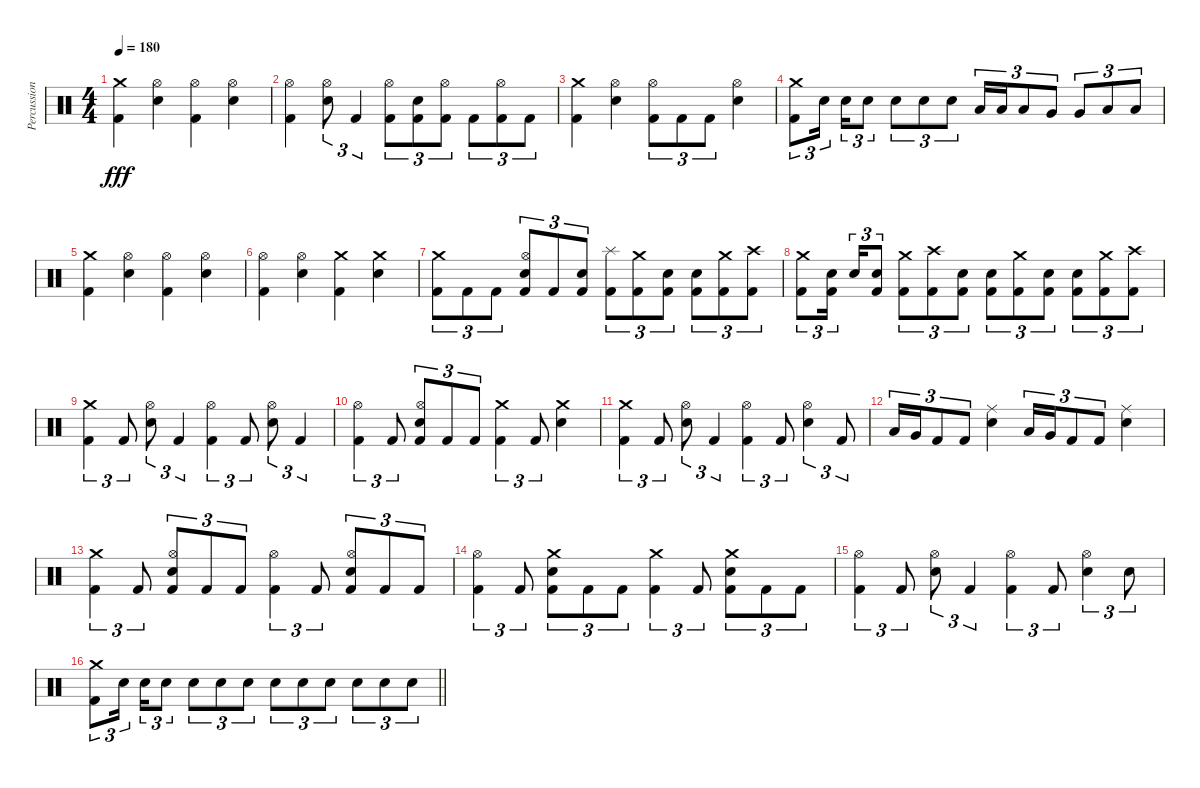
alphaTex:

\track ("Percussion" "Percussion") {instrument percussion}
\staff {score}
\articulation defaults
\ts (4 4)
\section ("" "")
\tempo 180
\clef neutral
\ks c
("Crash medium (hit)" "Kick (hit) 2").4{dy fff} ("Hi-Hat (open)" "Electric Snare (hit)").4 ("Hi-Hat (open)" "Kick (hit) 2").4 ("Hi-Hat (open)" "Electric Snare (hit)").4 |
("Hi-Hat (open)" "Kick (hit) 2").4 ("Hi-Hat (open)" "Electric Snare (hit)").8{tu (3 2)} "Kick (hit) 2".4{tu (3 2)} ("Hi-Hat (open)" "Kick (hit) 2").8{tu (3 2)} ("Electric Snare (hit)" "Kick (hit) 2").8{tu (3 2)} ("Hi-Hat (open)" "Kick (hit) 2").8{tu (3 2)} "Kick (hit) 2".8{tu (3 2)} ("Hi-Hat (open)" "Kick (hit) 2").8{tu (3 2)} "Kick (hit) 2".8{tu (3 2)} |
("Crash medium (hit)" "Kick (hit) 2").4 ("Hi-Hat (open)" "Electric Snare (hit)").4 ("Hi-Hat (open)" "Kick (hit) 2").8{tu (3 2)} "Kick (hit) 2".8{tu (3 2)} "Kick (hit) 2".8{tu (3 2)} ("Hi-Hat (open)" "Electric Snare (hit)").4 |
("Crash medium (hit)" "Kick (hit) 2").8{tu (3 2)} "Electric Snare (hit)".16{tu (3 2)} "Electric Snare (hit)".16{tu (3 2)} "Electric Snare (hit)".8{tu (3 2)} "Electric Snare (hit)".8{tu (3 2)} "Electric Snare (hit)".8{tu (3 2)} "Electric Snare (hit)".8{tu (3 2)} "Low Tom (hit)".16{tu (3 2)} "Low Tom (hit)".16{tu (3 2)} "Low Tom (hit)".8{tu (3 2)} "Very Low Tom (hit)".8{tu (3 2)} "Very Low Tom (hit)".8{tu (3 2)} "Low Floor Tom (hit)".8{tu (3 2)} "Low Floor Tom (hit)".8{tu (3 2)} |
("Crash medium (hit)" "Kick (hit) 2").4 ("Hi-Hat (open)" "Electric Snare (hit)").4 ("Hi-Hat (open)" "Kick (hit) 2").4 ("Hi-Hat (open)" "Electric Snare (hit)").4 |
("Hi-Hat (open)" "Kick (hit) 2").4 ("Hi-Hat (open)" "Electric Snare (hit)").4 ("Crash medium (hit)" "Kick (hit) 2").4 ("Crash medium (hit)" "Electric Snare (hit)").4 |
("Crash medium (hit)" "Kick (hit) 2").8{tu (3 2)} "Kick (hit) 2".8{tu (3 2)} "Kick (hit) 2".8{tu (3 2)} ("Hi-Hat (open)" "Electric Snare (hit)" "Kick (hit) 2").8{tu (3 2)} "Kick (hit) 2".8{tu (3 2)} ("Electric Snare (hit)" "Kick (hit) 2").8{tu (3 2)} ("Splash (hit)" "Kick (hit) 2").8{tu (3 2)} ("Crash medium (hit)" "Kick (hit) 2").8{tu (3 2)} ("Electric Snare (hit)" "Kick (hit) 2").8{tu (3 2)} ("Electric Snare (hit)" "Kick (hit) 2").8{tu (3 2)} ("Crash medium (hit)" "Kick (hit) 2").8{tu (3 2)} ("Crash high (hit)" "Kick (hit) 2").8{tu (3 2)} |
("Crash medium (hit)" "Kick (hit) 2").8{tu (3 2)} ("Electric Snare (hit)" "Kick (hit) 2").16{tu (3 2)} "Electric Snare (hit)".16{tu (3 2)} ("Electric Snare (hit)" "Kick (hit) 2").8{tu (3 2)} ("Crash medium (hit)" "Kick (hit) 2").8{tu (3 2)} ("Crash high (hit)" "Kick (hit) 2").8{tu (3 2)} ("Electric Snare (hit)" "Kick (hit) 2").8{tu (3 2)} ("Electric Snare (hit)" "Kick (hit) 2").8{tu (3 2)} ("Crash medium (hit)" "Kick (hit) 2").8{tu (3 2)} ("Electric Snare (hit)" "Kick (hit) 2").8{tu (3 2)} ("Electric Snare (hit)" "Kick (hit) 2").8{tu (3 2)} ("Crash medium (hit)" "Kick (hit) 2").8{tu (3 2)} ("Crash high (hit)" "Kick (hit) 2").8{tu (3 2)} |
("Crash medium (hit)" "Kick (hit) 2").4{tu (3 2)} "Kick (hit) 2".8{tu (3 2)} ("Hi-Hat (open)" "Electric Snare (hit)").8{tu (3 2)} "Kick (hit) 2".4{tu (3 2)} ("Hi-Hat (open)" "Kick (hit) 2").4{tu (3 2)} "Kick (hit) 2".8{tu (3 2)} ("Hi-Hat (open)" "Electric Snare (hit)").8{tu (3 2)} "Kick (hit) 2".4{tu (3 2)} |
("Hi-Hat (open)" "Kick (hit) 2").4{tu (3 2)} "Kick (hit) 2".8{tu (3 2)} ("Hi-Hat (open)" "Electric Snare (hit)" "Kick (hit) 2").8{tu (3 2)} "Kick (hit) 2".8{tu (3 2)} "Kick (hit) 2".8{tu (3 2)} ("Crash medium (hit)" "Kick (hit) 2").4{tu (3 2)} "Kick (hit) 2".8{tu (3 2)} ("Crash medium (hit)" "Electric Snare (hit)").4 |
("Crash medium (hit)" "Kick (hit) 2").4{tu (3 2)} "Kick (hit) 2".8{tu (3 2)} ("Hi-Hat (open)" "Electric Snare (hit)").8{tu (3 2)} "Kick (hit) 2".4{tu (3 2)} ("Hi-Hat (open)" "Kick (hit) 2").4{tu (3 2)} "Kick (hit) 2".8{tu (3 2)} ("Hi-Hat (open)" "Electric Snare (hit)").4{tu (3 2)} "Kick (hit) 2".8{tu (3 2)} |
"Low Tom (hit)".16{tu (3 2)} "Very Low Tom (hit)".16{tu (3 2)} "Kick (hit) 2".8{tu (3 2)} "Kick (hit) 2".8{tu (3 2)} ("Ride (middle)" "Electric Snare (hit)").4 "Low Tom (hit)".16{tu (3 2)} "Very Low Tom (hit)".16{tu (3 2)} "Kick (hit) 2".8{tu (3 2)} "Kick (hit) 2".8{tu (3 2)} ("Ride (middle)" "Electric Snare (hit)").4 |
("Crash medium (hit)" "Kick (hit) 2").4{tu (3 2)} "Kick (hit) 2".8{tu (3 2)} ("Hi-Hat (open)" "Electric Snare (hit)" "Kick (hit) 2").8{tu (3 2)} "Kick (hit) 2".8{tu (3 2)} "Kick (hit) 2".8{tu (3 2)} ("Hi-Hat (open)" "Kick (hit) 2").4{tu (3 2)} "Kick (hit) 2".8{tu (3 2)} ("Hi-Hat (open)" "Electric Snare (hit)" "Kick (hit) 2").8{tu (3 2)} "Kick (hit) 2".8{tu (3 2)} "Kick (hit) 2".8{tu (3 2)} |
("Hi-Hat (open)" "Kick (hit) 2").4{tu (3 2)} "Kick (hit) 2".8{tu (3 2)} ("Crash medium (hit)" "Electric Snare (hit)" "Kick (hit) 2").8{tu (3 2)} "Kick (hit) 2".8{tu (3 2)} "Kick (hit) 2".8{tu (3 2)} ("Crash medium (hit)" "Kick (hit) 2").4{tu (3 2)} "Kick (hit) 2".8{tu (3 2)} ("Crash medium (hit)" "Electric Snare (hit)" "Kick (hit) 2").8{tu (3 2)} "Kick (hit) 2".8{tu (3 2)} "Kick (hit) 2".8{tu (3 2)} |
("Hi-Hat (open)" "Kick (hit) 2").4{tu (3 2)} "Kick (hit) 2".8{tu (3 2)} ("Hi-Hat (open)" "Electric Snare (hit)").8{tu (3 2)} "Kick (hit) 2".4{tu (3 2)} ("Hi-Hat (open)" "Kick (hit) 2").4{tu (3 2)} "Kick (hit) 2".8{tu (3 2)} ("Hi-Hat (open)" "Electric Snare (hit)").4{tu (3 2)} "Electric Snare (hit)".8{tu (3 2)} |
\barLineRight lightlight
("Crash medium (hit)" "Kick (hit) 2").8{tu (3 2)} "Electric Snare (hit)".16{tu (3 2)} "Electric Snare (hit)".16{tu (3 2)} "Electric Snare (hit)".8{tu (3 2)} "Electric Snare (hit)".8{tu (3 2)} "Electric Snare (hit)".8{tu (3 2)} "Electric Snare (hit)".8{tu (3 2)} "Electric Snare (hit)".8{tu (3 2)} "Electric Snare (hit)".8{tu (3 2)} "Electric Snare (hit)".8{tu (3 2)} "Electric Snare (hit)".8{tu (3 2)} "Electric Snare (hit)".8{tu (3 2)} "Electric Snare (hit)".8{tu (3 2)}
